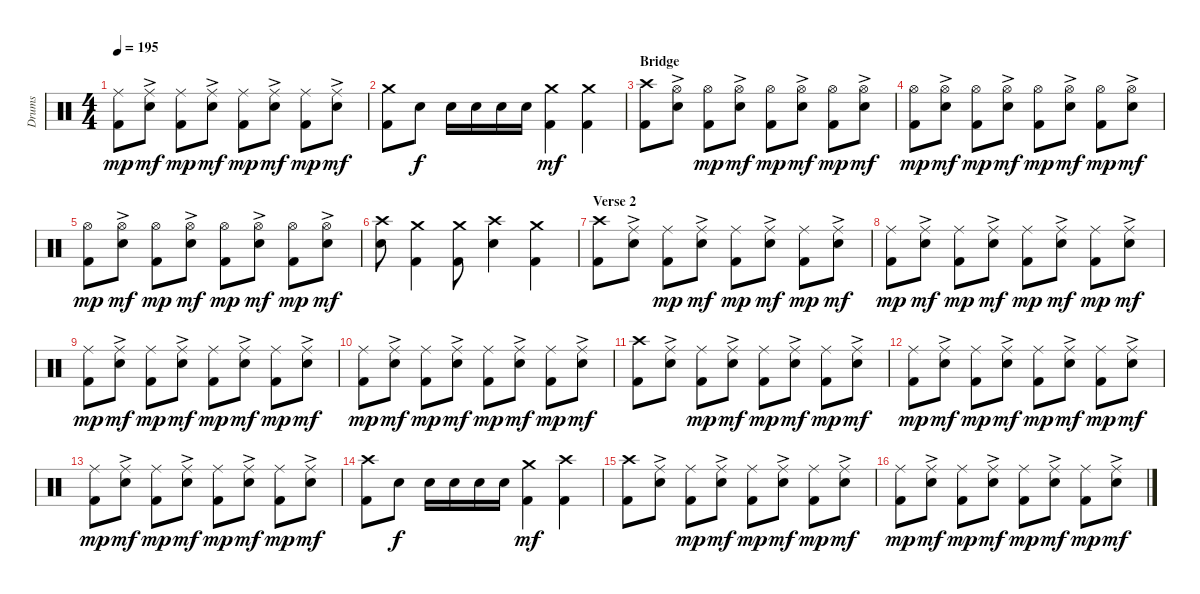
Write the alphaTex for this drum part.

\track ("Drums" "Drums") {instrument percussion}
\staff {score}
\articulation defaults
\ts (4 4)
\tempo 195
\clef neutral
\ks c
("Ride (middle)" "Kick (hit) 2").8{dy mp} ("Ride (middle)"{ac} "Electric Snare (hit)").8{dy mf} ("Ride (middle)" "Kick (hit) 2").8{dy mp} ("Ride (middle)"{ac} "Electric Snare (hit)").8{dy mf} ("Ride (middle)" "Kick (hit) 2").8{dy mp} ("Ride (middle)"{ac} "Electric Snare (hit)").8{dy mf} ("Ride (middle)" "Kick (hit) 2").8{dy mp} ("Ride (middle)"{ac} "Electric Snare (hit)").8{dy mf} |
("Crash medium (hit)" "Kick (hit) 2").8 "Electric Snare (hit)".8{dy f} "Electric Snare (hit)".16 "Electric Snare (hit)".16 "Electric Snare (hit)".16 "Electric Snare (hit)".16 ("Crash medium (hit)" "Kick (hit) 2").4{dy mf} ("Crash medium (hit)" "Kick (hit) 2").4 |
\section ("" "Bridge")
("Crash high (hit)" "Kick (hit) 2").8 ("Hi-Hat (open)"{ac} "Electric Snare (hit)").8 ("Hi-Hat (open)" "Kick (hit) 2").8{dy mp} ("Hi-Hat (open)"{ac} "Electric Snare (hit)").8{dy mf} ("Hi-Hat (open)" "Kick (hit) 2").8{dy mp} ("Hi-Hat (open)"{ac} "Electric Snare (hit)").8{dy mf} ("Hi-Hat (open)" "Kick (hit) 2").8{dy mp} ("Hi-Hat (open)"{ac} "Electric Snare (hit)").8{dy mf} |
("Hi-Hat (open)" "Kick (hit) 2").8{dy mp} ("Hi-Hat (open)"{ac} "Electric Snare (hit)").8{dy mf} ("Hi-Hat (open)" "Kick (hit) 2").8{dy mp} ("Hi-Hat (open)"{ac} "Electric Snare (hit)").8{dy mf} ("Hi-Hat (open)" "Kick (hit) 2").8{dy mp} ("Hi-Hat (open)"{ac} "Electric Snare (hit)").8{dy mf} ("Hi-Hat (open)" "Kick (hit) 2").8{dy mp} ("Hi-Hat (open)"{ac} "Electric Snare (hit)").8{dy mf} |
("Hi-Hat (open)" "Kick (hit) 2").8{dy mp} ("Hi-Hat (open)"{ac} "Electric Snare (hit)").8{dy mf} ("Hi-Hat (open)" "Kick (hit) 2").8{dy mp} ("Hi-Hat (open)"{ac} "Electric Snare (hit)").8{dy mf} ("Hi-Hat (open)" "Kick (hit) 2").8{dy mp} ("Hi-Hat (open)"{ac} "Electric Snare (hit)").8{dy mf} ("Hi-Hat (open)" "Kick (hit) 2").8{dy mp} ("Hi-Hat (open)"{ac} "Electric Snare (hit)").8{dy mf} |
("Crash high (hit)" "Electric Snare (hit)").8 ("Crash medium (hit)" "Kick (hit) 2").4 ("Crash medium (hit)" "Kick (hit) 2").8 ("Crash high (hit)" "Electric Snare (hit)").4 ("Crash medium (hit)" "Kick (hit) 2").4 |
\section ("" "Verse 2")
("Crash high (hit)" "Kick (hit) 2").8 ("Ride (middle)"{ac} "Electric Snare (hit)").8 ("Ride (middle)" "Kick (hit) 2").8{dy mp} ("Ride (middle)"{ac} "Electric Snare (hit)").8{dy mf} ("Ride (middle)" "Kick (hit) 2").8{dy mp} ("Ride (middle)"{ac} "Electric Snare (hit)").8{dy mf} ("Ride (middle)" "Kick (hit) 2").8{dy mp} ("Ride (middle)"{ac} "Electric Snare (hit)").8{dy mf} |
("Ride (middle)" "Kick (hit) 2").8{dy mp} ("Ride (middle)"{ac} "Electric Snare (hit)").8{dy mf} ("Ride (middle)" "Kick (hit) 2").8{dy mp} ("Ride (middle)"{ac} "Electric Snare (hit)").8{dy mf} ("Ride (middle)" "Kick (hit) 2").8{dy mp} ("Ride (middle)"{ac} "Electric Snare (hit)").8{dy mf} ("Ride (middle)" "Kick (hit) 2").8{dy mp} ("Ride (middle)"{ac} "Electric Snare (hit)").8{dy mf} |
("Ride (middle)" "Kick (hit) 2").8{dy mp} ("Ride (middle)"{ac} "Electric Snare (hit)").8{dy mf} ("Ride (middle)" "Kick (hit) 2").8{dy mp} ("Ride (middle)"{ac} "Electric Snare (hit)").8{dy mf} ("Ride (middle)" "Kick (hit) 2").8{dy mp} ("Ride (middle)"{ac} "Electric Snare (hit)").8{dy mf} ("Ride (middle)" "Kick (hit) 2").8{dy mp} ("Ride (middle)"{ac} "Electric Snare (hit)").8{dy mf} |
("Ride (middle)" "Kick (hit) 2").8{dy mp} ("Ride (middle)"{ac} "Electric Snare (hit)").8{dy mf} ("Ride (middle)" "Kick (hit) 2").8{dy mp} ("Ride (middle)"{ac} "Electric Snare (hit)").8{dy mf} ("Ride (middle)" "Kick (hit) 2").8{dy mp} ("Ride (middle)"{ac} "Electric Snare (hit)").8{dy mf} ("Ride (middle)" "Kick (hit) 2").8{dy mp} ("Ride (middle)"{ac} "Electric Snare (hit)").8{dy mf} |
("Crash high (hit)" "Kick (hit) 2").8 ("Ride (middle)"{ac} "Electric Snare (hit)").8 ("Ride (middle)" "Kick (hit) 2").8{dy mp} ("Ride (middle)"{ac} "Electric Snare (hit)").8{dy mf} ("Ride (middle)" "Kick (hit) 2").8{dy mp} ("Ride (middle)"{ac} "Electric Snare (hit)").8{dy mf} ("Ride (middle)" "Kick (hit) 2").8{dy mp} ("Ride (middle)"{ac} "Electric Snare (hit)").8{dy mf} |
("Ride (middle)" "Kick (hit) 2").8{dy mp} ("Ride (middle)"{ac} "Electric Snare (hit)").8{dy mf} ("Ride (middle)" "Kick (hit) 2").8{dy mp} ("Ride (middle)"{ac} "Electric Snare (hit)").8{dy mf} ("Ride (middle)" "Kick (hit) 2").8{dy mp} ("Ride (middle)"{ac} "Electric Snare (hit)").8{dy mf} ("Ride (middle)" "Kick (hit) 2").8{dy mp} ("Ride (middle)"{ac} "Electric Snare (hit)").8{dy mf} |
("Ride (middle)" "Kick (hit) 2").8{dy mp} ("Ride (middle)"{ac} "Electric Snare (hit)").8{dy mf} ("Ride (middle)" "Kick (hit) 2").8{dy mp} ("Ride (middle)"{ac} "Electric Snare (hit)").8{dy mf} ("Ride (middle)" "Kick (hit) 2").8{dy mp} ("Ride (middle)"{ac} "Electric Snare (hit)").8{dy mf} ("Ride (middle)" "Kick (hit) 2").8{dy mp} ("Ride (middle)"{ac} "Electric Snare (hit)").8{dy mf} |
("Crash high (hit)" "Kick (hit) 2").8 "Electric Snare (hit)".8{dy f} "Electric Snare (hit)".16 "Electric Snare (hit)".16 "Electric Snare (hit)".16 "Electric Snare (hit)".16 ("Crash medium (hit)" "Kick (hit) 2").4{dy mf} ("Crash high (hit)" "Kick (hit) 2").4 |
("Crash high (hit)" "Kick (hit) 2").8 ("Ride (middle)"{ac} "Electric Snare (hit)").8 ("Ride (middle)" "Kick (hit) 2").8{dy mp} ("Ride (middle)"{ac} "Electric Snare (hit)").8{dy mf} ("Ride (middle)" "Kick (hit) 2").8{dy mp} ("Ride (middle)"{ac} "Electric Snare (hit)").8{dy mf} ("Ride (middle)" "Kick (hit) 2").8{dy mp} ("Ride (middle)"{ac} "Electric Snare (hit)").8{dy mf} |
("Ride (middle)" "Kick (hit) 2").8{dy mp} ("Ride (middle)"{ac} "Electric Snare (hit)").8{dy mf} ("Ride (middle)" "Kick (hit) 2").8{dy mp} ("Ride (middle)"{ac} "Electric Snare (hit)").8{dy mf} ("Ride (middle)" "Kick (hit) 2").8{dy mp} ("Ride (middle)"{ac} "Electric Snare (hit)").8{dy mf} ("Ride (middle)" "Kick (hit) 2").8{dy mp} ("Ride (middle)"{ac} "Electric Snare (hit)").8{dy mf}
